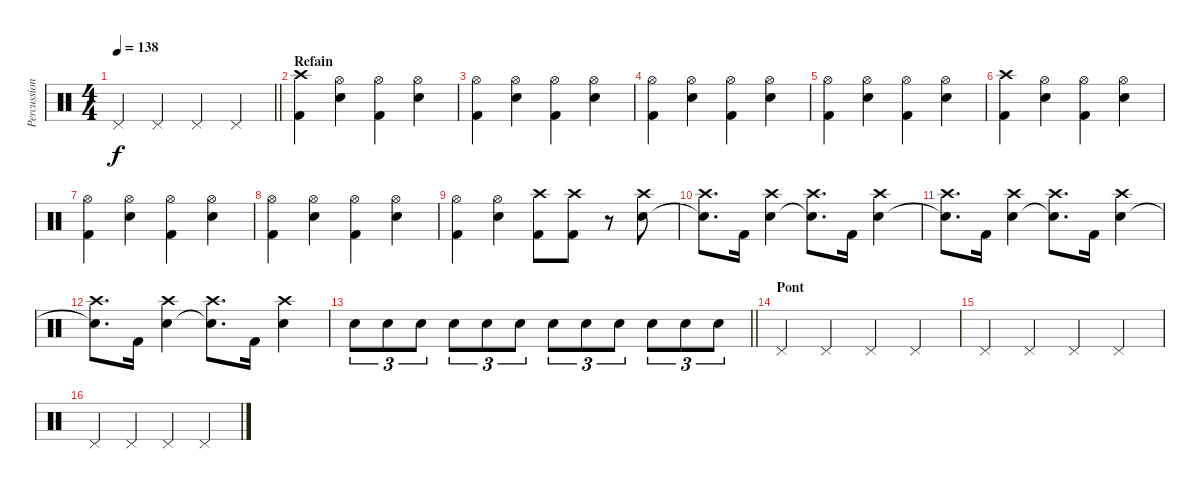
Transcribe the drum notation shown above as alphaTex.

\track ("Percussions Karim" "Percussion") {instrument percussion}
\staff {score}
\articulation defaults
\ts (4 4)
\tempo 138
\clef neutral
\barLineRight lightlight
\ks c "Pedal Hi-Hat (hit)".4{dy f} "Pedal Hi-Hat (hit)".4 "Pedal Hi-Hat (hit)".4 "Pedal Hi-Hat (hit)".4
|
\section ("" "Refain")
("Crash high (hit)" "Kick (hit) 2").4 ("Hi-Hat (open)" "Snare (hit) 2").4 ("Hi-Hat (open)" "Kick (hit) 2").4 ("Hi-Hat (open)" "Snare (hit) 2").4 |
("Hi-Hat (open)" "Kick (hit) 2").4 ("Hi-Hat (open)" "Snare (hit) 2").4 ("Hi-Hat (open)" "Kick (hit) 2").4 ("Hi-Hat (open)" "Snare (hit) 2").4 |
("Hi-Hat (open)" "Kick (hit) 2").4 ("Hi-Hat (open)" "Snare (hit) 2").4 ("Hi-Hat (open)" "Kick (hit) 2").4 ("Hi-Hat (open)" "Snare (hit) 2").4 |
("Hi-Hat (open)" "Kick (hit) 2").4 ("Hi-Hat (open)" "Snare (hit) 2").4 ("Hi-Hat (open)" "Kick (hit) 2").4 ("Hi-Hat (open)" "Snare (hit) 2").4 |
("Crash high (hit)" "Kick (hit) 2").4 ("Hi-Hat (open)" "Snare (hit) 2").4 ("Hi-Hat (open)" "Kick (hit) 2").4 ("Hi-Hat (open)" "Snare (hit) 2").4 |
("Hi-Hat (open)" "Kick (hit) 2").4 ("Hi-Hat (open)" "Snare (hit) 2").4 ("Hi-Hat (open)" "Kick (hit) 2").4 ("Hi-Hat (open)" "Snare (hit) 2").4 |
("Hi-Hat (open)" "Kick (hit) 2").4 ("Hi-Hat (open)" "Snare (hit) 2").4 ("Hi-Hat (open)" "Kick (hit) 2").4 ("Hi-Hat (open)" "Snare (hit) 2").4 |
("Hi-Hat (open)" "Kick (hit) 2").4 ("Hi-Hat (open)" "Snare (hit) 2").4 ("Crash high (hit)" "Kick (hit) 2").8 ("Crash high (hit)" "Kick (hit) 2").8 r.8 ("Crash high (hit)" "Electric Snare (hit)").8 |
("Crash high (hit)" "Electric Snare (hit)"{t}).8{d} "Kick (hit) 2".16 ("Crash high (hit)" "Electric Snare (hit)").4 ("Crash high (hit)" "Electric Snare (hit)"{t}).8{d} "Kick (hit) 2".16 ("Crash high (hit)" "Electric Snare (hit)").4 |
("Crash high (hit)" "Electric Snare (hit)"{t}).8{d} "Kick (hit) 2".16 ("Crash high (hit)" "Electric Snare (hit)").4 ("Crash high (hit)" "Electric Snare (hit)"{t}).8{d} "Kick (hit) 2".16 ("Crash high (hit)" "Electric Snare (hit)").4 |
("Crash high (hit)" "Electric Snare (hit)"{t}).8{d} "Kick (hit) 2".16 ("Crash high (hit)" "Electric Snare (hit)").4 ("Crash high (hit)" "Electric Snare (hit)"{t}).8{d} "Kick (hit) 2".16 ("Crash high (hit)" "Electric Snare (hit)").4 |
\barLineRight lightlight "Electric Snare (hit)".8{tu (3 2)} "Electric Snare (hit)".8{tu (3 2)} "Electric Snare (hit)".8{tu (3 2)} "Electric Snare (hit)".8{tu (3 2)} "Electric Snare (hit)".8{tu (3 2)} "Electric Snare (hit)".8{tu (3 2)} "Electric Snare (hit)".8{tu (3 2)} "Electric Snare (hit)".8{tu (3 2)} "Electric Snare (hit)".8{tu (3 2)} "Electric Snare (hit)".8{tu (3 2)} "Electric Snare (hit)".8{tu (3 2)} "Electric Snare (hit)".8{tu (3 2)}
|
\section ("" "Pont")
"Pedal Hi-Hat (hit)".4 "Pedal Hi-Hat (hit)".4 "Pedal Hi-Hat (hit)".4 "Pedal Hi-Hat (hit)".4 |
"Pedal Hi-Hat (hit)".4 "Pedal Hi-Hat (hit)".4 "Pedal Hi-Hat (hit)".4 "Pedal Hi-Hat (hit)".4 |
"Pedal Hi-Hat (hit)".4 "Pedal Hi-Hat (hit)".4 "Pedal Hi-Hat (hit)".4 "Pedal Hi-Hat (hit)".4
